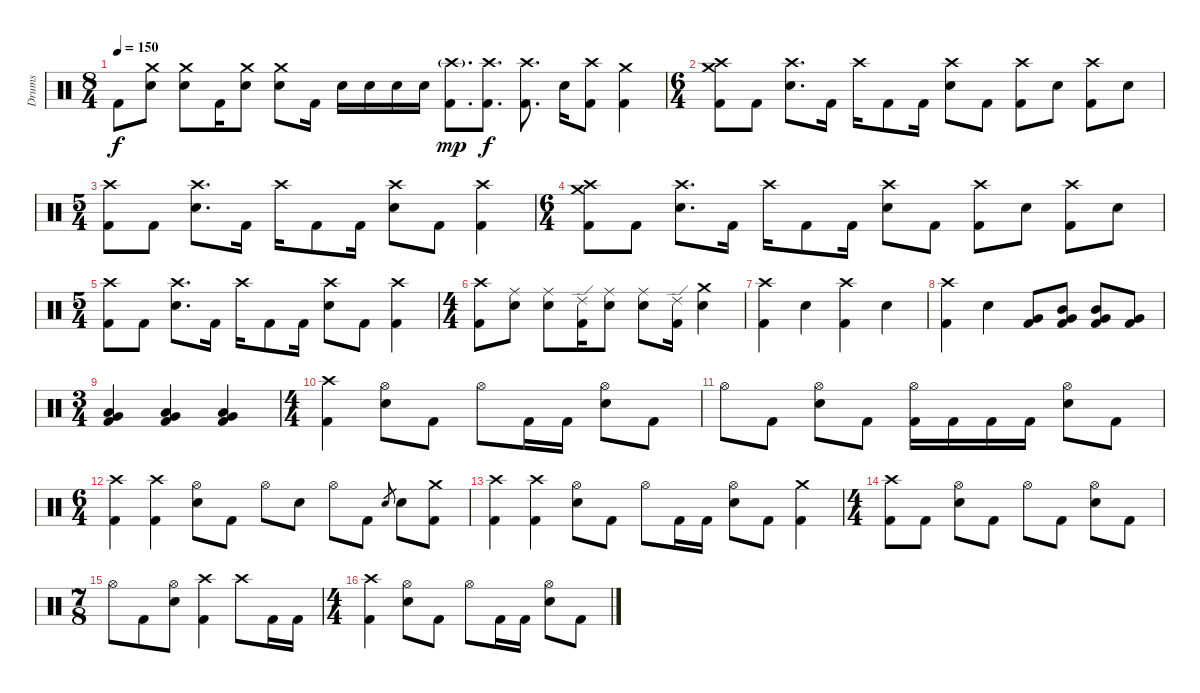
\track ("Drums" "Drums") {instrument percussion}
\staff {score}
\articulation defaults
\ts (8 4)
\tempo 150
\clef neutral
\ks c "Kick (hit) 2".8{dy f}
("Crash medium (hit)" "Electric Snare (hit)").8 ("Crash medium (hit)" "Electric Snare (hit)").8 "Kick (hit) 2".16 ("Crash medium (hit)" "Electric Snare (hit)").8 ("Crash medium (hit)" "Electric Snare (hit)").8 "Kick (hit) 2".16 "Electric Snare (hit)".16 "Electric Snare (hit)".16 "Electric Snare (hit)".16 "Electric Snare (hit)".16 ("Crash high (hit)"{g} "Kick (hit) 2").8{d dy mp} ("Crash high (hit)" "Kick (hit) 2").8{d dy f} ("Crash high (hit)" "Kick (hit) 2").8{d} "Electric Snare (hit)".16 ("Crash high (hit)" "Kick (hit) 2").8 ("Crash medium (hit)" "Kick (hit) 2").4 |
\ts (6 4)
("Crash high (hit)" "Crash medium (hit)" "Kick (hit) 2").8 "Kick (hit) 2".8 ("Crash high (hit)" "Electric Snare (hit)").8{d} "Kick (hit) 2".16 "Crash high (hit)".16 "Kick (hit) 2".8 "Kick (hit) 2".16 ("Crash high (hit)" "Electric Snare (hit)").8 "Kick (hit) 2".8 ("Crash high (hit)" "Kick (hit) 2").8 "Electric Snare (hit)".8 ("Crash high (hit)" "Kick (hit) 2").8 "Electric Snare (hit)".8 |
\ts (5 4)
("Crash high (hit)" "Kick (hit) 2").8 "Kick (hit) 2".8 ("Crash high (hit)" "Electric Snare (hit)").8{d} "Kick (hit) 2".16 "Crash high (hit)".16 "Kick (hit) 2".8 "Kick (hit) 2".16 ("Crash high (hit)" "Electric Snare (hit)").8 "Kick (hit) 2".8 ("Crash high (hit)" "Kick (hit) 2").4 |
\ts (6 4)
("Crash high (hit)" "Crash medium (hit)" "Kick (hit) 2").8 "Kick (hit) 2".8 ("Crash high (hit)" "Electric Snare (hit)").8{d} "Kick (hit) 2".16 "Crash high (hit)".16 "Kick (hit) 2".8 "Kick (hit) 2".16 ("Crash high (hit)" "Electric Snare (hit)").8 "Kick (hit) 2".8 ("Crash high (hit)" "Kick (hit) 2").8 "Electric Snare (hit)".8 ("Crash high (hit)" "Kick (hit) 2").8 "Electric Snare (hit)".8 |
\ts (5 4)
("Crash high (hit)" "Kick (hit) 2").8 "Kick (hit) 2".8 ("Crash high (hit)" "Electric Snare (hit)").8{d} "Kick (hit) 2".16 "Crash high (hit)".16 "Kick (hit) 2".8 "Kick (hit) 2".16 ("Crash high (hit)" "Electric Snare (hit)").8 "Kick (hit) 2".8 ("Crash high (hit)" "Kick (hit) 2").4 |
\ts (4 4)
("Crash high (hit)" "Kick (hit) 2").8 ("Ride (middle)" "Electric Snare (hit)").8 ("Ride (middle)" "Electric Snare (hit)").8 ("Ride (edge) 2" "Kick (hit) 2").16 ("Ride (middle)" "Electric Snare (hit)").8 ("Ride (middle)" "Electric Snare (hit)").8 ("Ride (edge) 2" "Kick (hit) 2").16 ("Crash medium (hit)" "Electric Snare (hit)").4 |
("Crash high (hit)" "Kick (hit) 2").4 "Electric Snare (hit)".4 ("Crash high (hit)" "Kick (hit) 2").4 "Electric Snare (hit)".4 |
("Crash high (hit)" "Kick (hit) 2").4 "Electric Snare (hit)".4 ("Very Low Tom (hit)" "Kick (hit) 2").8 ("Very Low Tom (hit)" "Mid Tom (hit)" "Kick (hit) 2").8 ("Very Low Tom (hit)" "Mid Tom (hit)" "Kick (hit) 2").8 ("Very Low Tom (hit)" "Kick (hit) 2").8 |
\ts (3 4)
("Low Floor Tom (hit)" "Very Low Tom (hit)" "Kick (hit) 2").4 ("Low Floor Tom (hit)" "Very Low Tom (hit)" "Kick (hit) 2").4 ("Low Floor Tom (hit)" "Very Low Tom (hit)" "Kick (hit) 2").4 |
\ts (4 4)
("Crash high (hit)" "Kick (hit) 2").4 ("Hi-Hat (open)" "Electric Snare (hit)").8 "Kick (hit) 2".8 "Hi-Hat (open)".8 "Kick (hit) 2".16 "Kick (hit) 2".16 ("Hi-Hat (open)" "Electric Snare (hit)").8 "Kick (hit) 2".8 |
"Hi-Hat (open)".8 "Kick (hit) 2".8 ("Hi-Hat (open)" "Electric Snare (hit)").8 "Kick (hit) 2".8 ("Hi-Hat (open)" "Kick (hit) 2").16 "Kick (hit) 2".16 "Kick (hit) 2".16 "Kick (hit) 2".16 ("Hi-Hat (open)" "Electric Snare (hit)").8 "Kick (hit) 2".8 |
\ts (6 4)
("Crash high (hit)" "Kick (hit) 2").4 ("Crash high (hit)" "Kick (hit) 2").4 ("Hi-Hat (open)" "Electric Snare (hit)").8 "Kick (hit) 2".8 "Hi-Hat (open)".8 "Electric Snare (hit)".8 "Hi-Hat (open)".8 "Kick (hit) 2".8 "Electric Snare (hit)".8{gr} "Electric Snare (hit)".8 ("Crash medium (hit)" "Kick (hit) 2").8 |
("Crash high (hit)" "Kick (hit) 2").4 ("Crash high (hit)" "Kick (hit) 2").4 ("Hi-Hat (open)" "Electric Snare (hit)").8 "Kick (hit) 2".8 "Hi-Hat (open)".8 "Kick (hit) 2".16 "Kick (hit) 2".16 ("Hi-Hat (open)" "Electric Snare (hit)").8 "Kick (hit) 2".8 ("Crash medium (hit)" "Kick (hit) 2").4 |
\ts (4 4)
("Crash high (hit)" "Kick (hit) 2").8 "Kick (hit) 2".8 ("Hi-Hat (open)" "Electric Snare (hit)").8 "Kick (hit) 2".8 "Hi-Hat (open)".8 "Kick (hit) 2".8 ("Hi-Hat (open)" "Electric Snare (hit)").8 "Kick (hit) 2".8 |
\ts (7 8)
"Hi-Hat (open)".8 "Kick (hit) 2".8 ("Hi-Hat (open)" "Electric Snare (hit)").8 ("Crash high (hit)" "Kick (hit) 2").4 "Crash high (hit)".8 "Kick (hit) 2".16 "Kick (hit) 2".16 |
\ts (4 4)
("Crash high (hit)" "Kick (hit) 2").4 ("Hi-Hat (open)" "Electric Snare (hit)").8 "Kick (hit) 2".8 "Hi-Hat (open)".8 "Kick (hit) 2".16 "Kick (hit) 2".16 ("Hi-Hat (open)" "Electric Snare (hit)").8 "Kick (hit) 2".8
